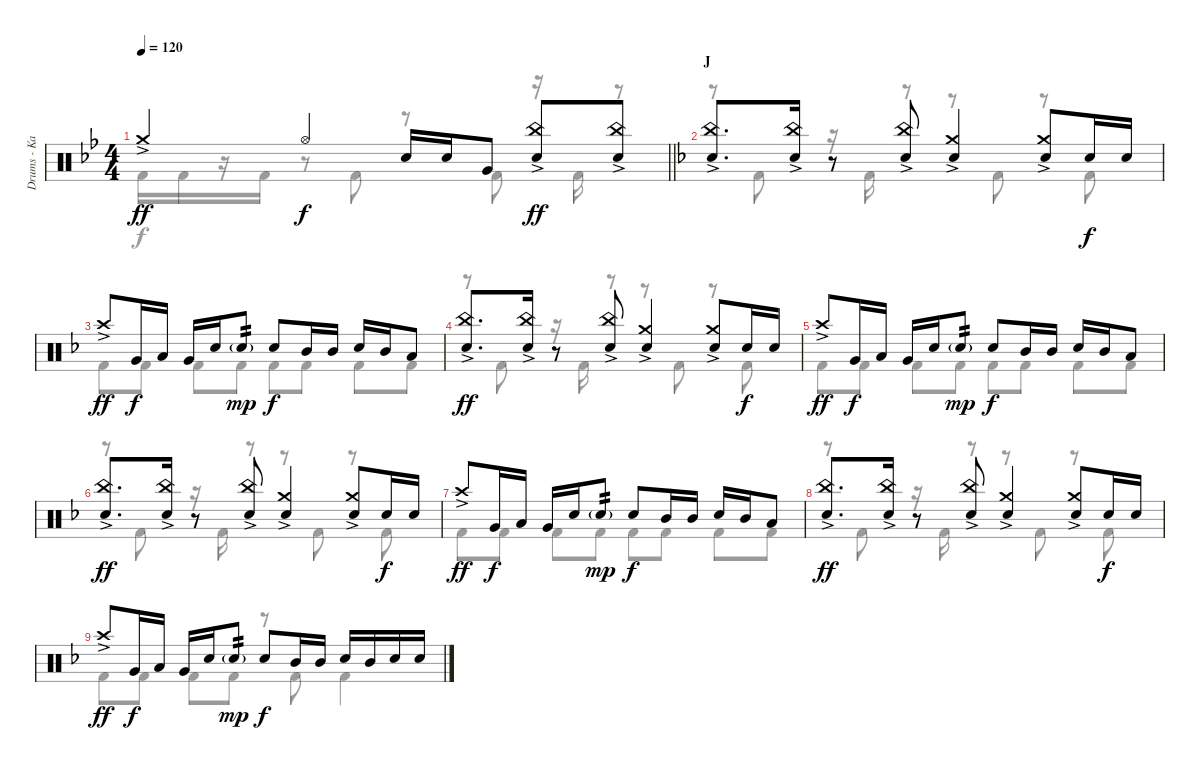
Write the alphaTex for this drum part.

\track ("Drums - Kai" "Drums - Ka") {instrument percussion}
\staff {score}
\articulation defaults
\voice
\ts (4 4)
\tempo 120
\clef neutral
\barLineRight lightlight
\ks bb "Crash medium (hit)"{ac}.4{dy ff} "Hi-Hat (open)".4{dy f} "Snare (hit) 2".16 "Snare (hit) 2".16 "Very Low Tom (hit)".8
("China (hit)"{ac} "Snare (hit) 2").8{dy ff} ("China (hit)"{ac} "Snare (hit) 2").8 |
\section ("" "J")
\ks f
("China (hit)"{ac} "Snare (hit) 2").8{d} ("China (hit)"{ac} "Snare (hit) 2").16 r.8 ("China (hit)"{ac} "Snare (hit) 2").8 ("Crash medium (hit)"{ac} "Snare (hit) 2").4 ("Crash medium (hit)"{ac} "Snare (hit) 2").8 "Snare (hit) 2".16{dy f} "Snare (hit) 2".16 |
"Crash high (hit)"{ac}.8{dy ff} "Very Low Tom (hit)".16{dy f} "Low Tom (hit)".16 "Very Low Tom (hit)".16 "Snare (hit) 2".16 "Snare (hit) 2"{g}.8{tp 2 dy mp} "Snare (hit) 2".8{dy f} "Mid Tom (hit)".16 "Mid Tom (hit)".16 "Snare (hit) 2".16 "Mid Tom (hit)".16 "Low Tom (hit)".8 |
("China (hit)"{ac} "Snare (hit) 2").8{d dy ff} ("China (hit)"{ac} "Snare (hit) 2").16 r.8 ("China (hit)"{ac} "Snare (hit) 2").8 ("Crash medium (hit)"{ac} "Snare (hit) 2").4 ("Crash medium (hit)"{ac} "Snare (hit) 2").8 "Snare (hit) 2".16{dy f} "Snare (hit) 2".16 |
"Crash high (hit)"{ac}.8{dy ff} "Very Low Tom (hit)".16{dy f} "Low Tom (hit)".16 "Very Low Tom (hit)".16 "Snare (hit) 2".16 "Snare (hit) 2"{g}.8{tp 2 dy mp} "Snare (hit) 2".8{dy f} "Mid Tom (hit)".16 "Mid Tom (hit)".16 "Snare (hit) 2".16 "Mid Tom (hit)".16 "Low Tom (hit)".8 |
("China (hit)"{ac} "Snare (hit) 2").8{d dy ff} ("China (hit)"{ac} "Snare (hit) 2").16 r.8 ("China (hit)"{ac} "Snare (hit) 2").8 ("Crash medium (hit)"{ac} "Snare (hit) 2").4 ("Crash medium (hit)"{ac} "Snare (hit) 2").8 "Snare (hit) 2".16{dy f} "Snare (hit) 2".16 |
"Crash high (hit)"{ac}.8{dy ff} "Very Low Tom (hit)".16{dy f} "Low Tom (hit)".16 "Very Low Tom (hit)".16 "Snare (hit) 2".16 "Snare (hit) 2"{g}.8{tp 2 dy mp} "Snare (hit) 2".8{dy f} "Mid Tom (hit)".16 "Mid Tom (hit)".16 "Snare (hit) 2".16 "Mid Tom (hit)".16 "Low Tom (hit)".8 |
("China (hit)"{ac} "Snare (hit) 2").8{d dy ff} ("China (hit)"{ac} "Snare (hit) 2").16 r.8 ("China (hit)"{ac} "Snare (hit) 2").8 ("Crash medium (hit)"{ac} "Snare (hit) 2").4 ("Crash medium (hit)"{ac} "Snare (hit) 2").8 "Snare (hit) 2".16{dy f} "Snare (hit) 2".16 |
"Crash high (hit)"{ac}.8{dy ff} "Very Low Tom (hit)".16{dy f} "Low Tom (hit)".16 "Very Low Tom (hit)".16 "Snare (hit) 2".16 "Snare (hit) 2"{g}.8{tp 2 dy mp} "Snare (hit) 2".8{dy f} "Mid Tom (hit)".16 "Mid Tom (hit)".16 "Snare (hit) 2".16 "Mid Tom (hit)".16 "Snare (hit) 2".16 "Snare (hit) 2".16
\voice
\clef neutral
\ottava regular
\simile none
\barLineRight lightlight
\ks bb "Kick (hit) 2".16{dy f} "Kick (hit) 2".16
r.16 "Kick (hit) 2".16 r.8 "Kick (hit) 2".8 r.8 "Kick (hit) 2".8 r.16 "Kick (hit) 2".16 r.8 |
\ks f
r.8 "Kick (hit) 2".8 r.16 "Kick (hit) 2".16 r.8 r.8 "Kick (hit) 2".8 r.8 "Kick (hit) 2".8 |
"Kick (hit) 2".8 "Kick (hit) 2".8 "Kick (hit) 2".8 "Kick (hit) 2".8 "Kick (hit) 2".8 "Kick (hit) 2".8 "Kick (hit) 2".8 "Kick (hit) 2".8 |
r.8 "Kick (hit) 2".8 r.16 "Kick (hit) 2".16 r.8 r.8 "Kick (hit) 2".8 r.8 "Kick (hit) 2".8 |
"Kick (hit) 2".8 "Kick (hit) 2".8 "Kick (hit) 2".8 "Kick (hit) 2".8 "Kick (hit) 2".8 "Kick (hit) 2".8 "Kick (hit) 2".8 "Kick (hit) 2".8 |
r.8 "Kick (hit) 2".8 r.16 "Kick (hit) 2".16 r.8 r.8 "Kick (hit) 2".8 r.8 "Kick (hit) 2".8 |
"Kick (hit) 2".8 "Kick (hit) 2".8 "Kick (hit) 2".8 "Kick (hit) 2".8 "Kick (hit) 2".8 "Kick (hit) 2".8 "Kick (hit) 2".8 "Kick (hit) 2".8 |
r.8 "Kick (hit) 2".8 r.16 "Kick (hit) 2".16 r.8 r.8 "Kick (hit) 2".8 r.8 "Kick (hit) 2".8 |
"Kick (hit) 2".8 "Kick (hit) 2".8 "Kick (hit) 2".8 "Kick (hit) 2".8 r.8 "Kick (hit) 2".8 "Kick (hit) 2".4
